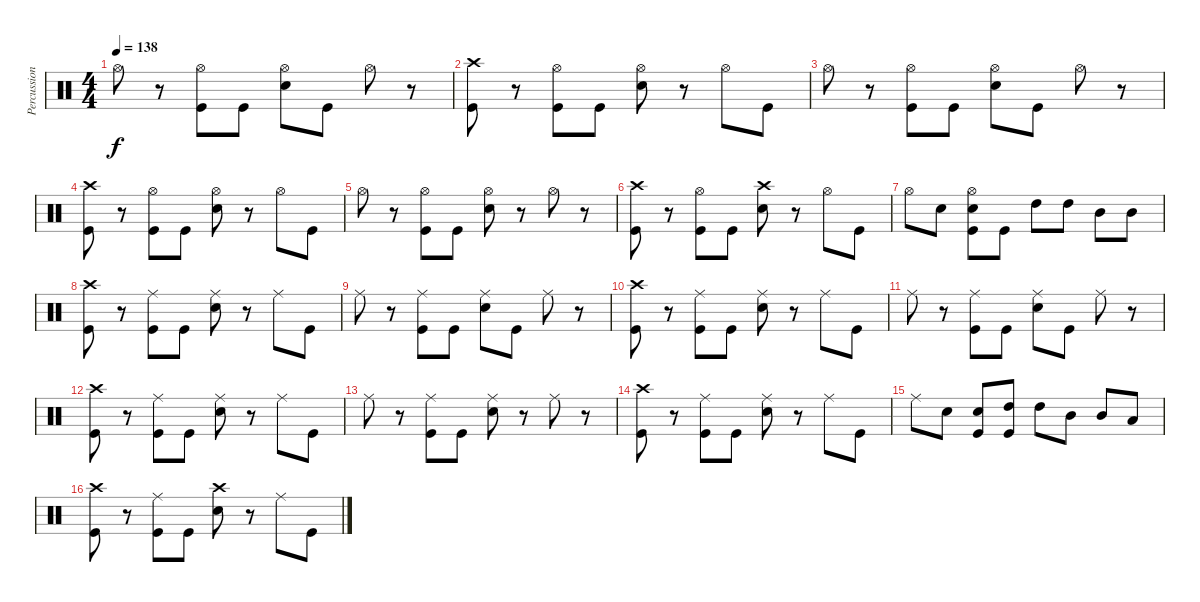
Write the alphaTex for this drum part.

\track ("Percussion" "Percussion") {instrument percussion}
\staff {score}
\articulation defaults
\ts (4 4)
\tempo 138
\clef neutral
\ks c "Hi-Hat (open)".8{dy f}
r.8 ("Hi-Hat (open)" "Kick (hit)").8 "Kick (hit)".8 ("Snare (hit) 2" "Hi-Hat (open)").8 "Kick (hit)".8 "Hi-Hat (open)".8 r.8 |
("Crash high (hit)" "Kick (hit)").8 r.8 ("Hi-Hat (open)" "Kick (hit)").8 "Kick (hit)".8 ("Snare (hit) 2" "Hi-Hat (open)").8 r.8 "Hi-Hat (open)".8 "Kick (hit)".8 |
"Hi-Hat (open)".8 r.8 ("Hi-Hat (open)" "Kick (hit)").8 "Kick (hit)".8 ("Snare (hit) 2" "Hi-Hat (open)").8 "Kick (hit)".8 "Hi-Hat (open)".8 r.8 |
("Crash high (hit)" "Kick (hit)").8 r.8 ("Hi-Hat (open)" "Kick (hit)").8 "Kick (hit)".8 ("Snare (hit) 2" "Hi-Hat (open)").8 r.8 "Hi-Hat (open)".8 "Kick (hit)".8 |
"Hi-Hat (open)".8 r.8 ("Hi-Hat (open)" "Kick (hit)").8 "Kick (hit)".8 ("Snare (hit) 2" "Hi-Hat (open)").8 r.8 "Hi-Hat (open)".8 r.8 |
("Crash high (hit)" "Kick (hit)").8 r.8 ("Hi-Hat (open)" "Kick (hit)").8 "Kick (hit)".8 ("Snare (hit) 2" "Crash high (hit)").8 r.8 "Hi-Hat (open)".8 "Kick (hit)".8 |
"Hi-Hat (open)".8 "Snare (hit) 2".8 ("Snare (hit) 2" "Hi-Hat (open)" "Kick (hit)").8 "Kick (hit)".8 "High Tom (hit)".8 "High Tom (hit)".8 "Mid Tom (hit)".8 "Mid Tom (hit)".8 |
("Crash high (hit)" "Kick (hit)").8 r.8 ("Ride (middle)" "Kick (hit)").8 "Kick (hit)".8 ("Snare (hit) 2" "Ride (middle)").8 r.8 "Ride (middle)".8 "Kick (hit)".8 |
"Ride (middle)".8 r.8 ("Ride (middle)" "Kick (hit)").8 "Kick (hit)".8 ("Snare (hit) 2" "Ride (middle)").8 "Kick (hit)".8 "Ride (middle)".8 r.8 |
("Crash high (hit)" "Kick (hit)").8 r.8 ("Ride (middle)" "Kick (hit)").8 "Kick (hit)".8 ("Snare (hit) 2" "Ride (middle)").8 r.8 "Ride (middle)".8 "Kick (hit)".8 |
"Ride (middle)".8 r.8 ("Ride (middle)" "Kick (hit)").8 "Kick (hit)".8 ("Snare (hit) 2" "Ride (middle)").8 "Kick (hit)".8 "Ride (middle)".8 r.8 |
("Crash high (hit)" "Kick (hit)").8 r.8 ("Ride (middle)" "Kick (hit)").8 "Kick (hit)".8 ("Snare (hit) 2" "Ride (middle)").8 r.8 "Ride (middle)".8 "Kick (hit)".8 |
"Ride (middle)".8 r.8 ("Ride (middle)" "Kick (hit)").8 "Kick (hit)".8 ("Snare (hit) 2" "Ride (middle)").8 r.8 "Ride (middle)".8 r.8 |
("Crash high (hit)" "Kick (hit)").8 r.8 ("Ride (middle)" "Kick (hit)").8 "Kick (hit)".8 ("Snare (hit) 2" "Ride (middle)").8 r.8 "Ride (middle)".8 "Kick (hit)".8 |
"Ride (middle)".8 "Snare (hit) 2".8 ("Snare (hit) 2" "Kick (hit)").8 ("High Tom (hit)" "Kick (hit)").8 "High Tom (hit)".8 "Mid Tom (hit)".8 "Mid Tom (hit)".8 "Low Tom (hit)".8 |
("Crash high (hit)" "Kick (hit)").8 r.8 ("Ride (middle)" "Kick (hit)").8 "Kick (hit)".8 ("Snare (hit) 2" "Crash high (hit)").8 r.8 "Ride (middle)".8 "Kick (hit)".8
